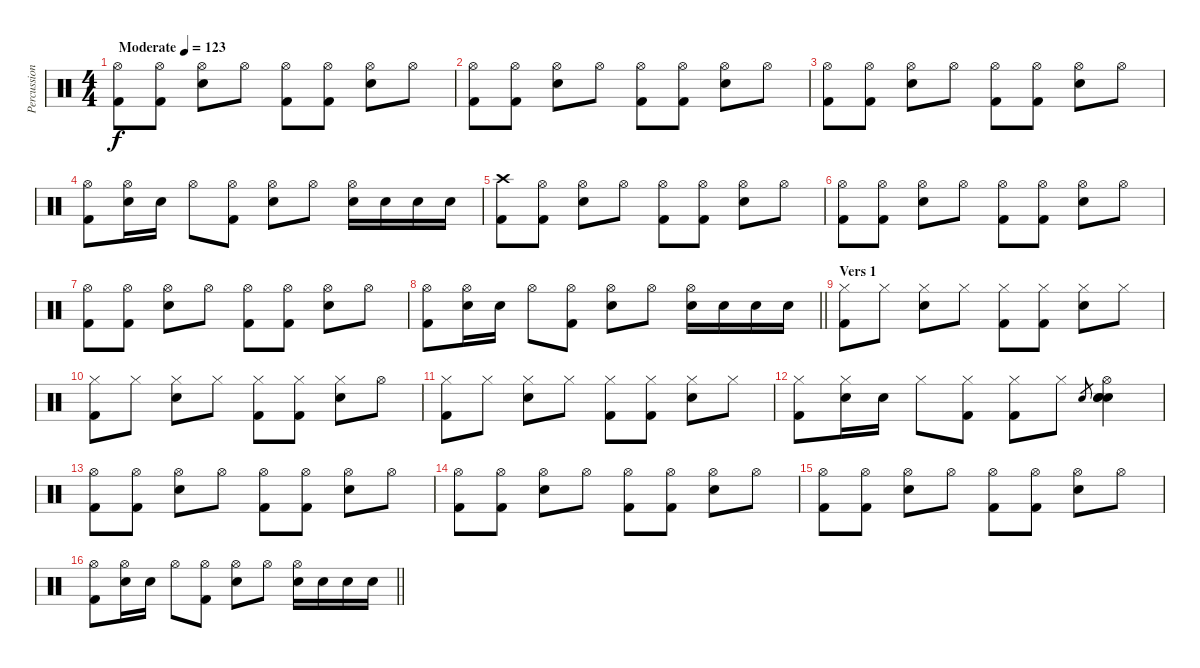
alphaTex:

\track ("Percussion" "Percussion") {instrument percussion}
\staff {score}
\articulation defaults
\ts (4 4)
\tempo (123 "Moderate")
\clef neutral
\ks c
("Hi-Hat (open)" "Kick (hit) 2").8{dy f} ("Hi-Hat (open)" "Kick (hit) 2").8 ("Hi-Hat (open)" "Snare (hit) 2").8 "Hi-Hat (open)".8 ("Hi-Hat (open)" "Kick (hit) 2").8 ("Hi-Hat (open)" "Kick (hit) 2").8 ("Hi-Hat (open)" "Snare (hit) 2").8 "Hi-Hat (open)".8 |
("Hi-Hat (open)" "Kick (hit) 2").8 ("Hi-Hat (open)" "Kick (hit) 2").8 ("Hi-Hat (open)" "Snare (hit) 2").8 "Hi-Hat (open)".8 ("Hi-Hat (open)" "Kick (hit) 2").8 ("Hi-Hat (open)" "Kick (hit) 2").8 ("Hi-Hat (open)" "Snare (hit) 2").8 "Hi-Hat (open)".8 |
("Hi-Hat (open)" "Kick (hit) 2").8 ("Hi-Hat (open)" "Kick (hit) 2").8 ("Hi-Hat (open)" "Snare (hit) 2").8 "Hi-Hat (open)".8 ("Hi-Hat (open)" "Kick (hit) 2").8 ("Hi-Hat (open)" "Kick (hit) 2").8 ("Hi-Hat (open)" "Snare (hit) 2").8 "Hi-Hat (open)".8 |
("Hi-Hat (open)" "Kick (hit) 2").8 ("Hi-Hat (open)" "Snare (hit) 2").16 "Snare (hit) 2".16 "Hi-Hat (open)".8 ("Hi-Hat (open)" "Kick (hit) 2").8 ("Hi-Hat (open)" "Snare (hit) 2").8 "Hi-Hat (open)".8 ("Hi-Hat (open)" "Snare (hit) 2").16 "Snare (hit) 2".16 "Snare (hit) 2".16 "Snare (hit) 2".16 |
("Crash high (hit)" "Kick (hit) 2").8 ("Hi-Hat (open)" "Kick (hit) 2").8 ("Hi-Hat (open)" "Snare (hit) 2").8 "Hi-Hat (open)".8 ("Hi-Hat (open)" "Kick (hit) 2").8 ("Hi-Hat (open)" "Kick (hit) 2").8 ("Hi-Hat (open)" "Snare (hit) 2").8 "Hi-Hat (open)".8 |
("Hi-Hat (open)" "Kick (hit) 2").8 ("Hi-Hat (open)" "Kick (hit) 2").8 ("Hi-Hat (open)" "Snare (hit) 2").8 "Hi-Hat (open)".8 ("Hi-Hat (open)" "Kick (hit) 2").8 ("Hi-Hat (open)" "Kick (hit) 2").8 ("Hi-Hat (open)" "Snare (hit) 2").8 "Hi-Hat (open)".8 |
("Hi-Hat (open)" "Kick (hit) 2").8 ("Hi-Hat (open)" "Kick (hit) 2").8 ("Hi-Hat (open)" "Snare (hit) 2").8 "Hi-Hat (open)".8 ("Hi-Hat (open)" "Kick (hit) 2").8 ("Hi-Hat (open)" "Kick (hit) 2").8 ("Hi-Hat (open)" "Snare (hit) 2").8 "Hi-Hat (open)".8 |
\barLineRight lightlight
("Hi-Hat (open)" "Kick (hit) 2").8 ("Hi-Hat (open)" "Snare (hit) 2").16 "Snare (hit) 2".16 "Hi-Hat (open)".8 ("Hi-Hat (open)" "Kick (hit) 2").8 ("Hi-Hat (open)" "Snare (hit) 2").8 "Hi-Hat (open)".8 ("Hi-Hat (open)" "Snare (hit) 2").16 "Snare (hit) 2".16 "Snare (hit) 2".16 "Snare (hit) 2".16 |
\section ("" "Vers 1")
("Hi-Hat (closed)" "Kick (hit) 2").8 "Hi-Hat (closed)".8 ("Hi-Hat (closed)" "Snare (hit) 2").8 "Hi-Hat (closed)".8 ("Hi-Hat (closed)" "Kick (hit) 2").8 ("Hi-Hat (closed)" "Kick (hit) 2").8 ("Hi-Hat (closed)" "Snare (hit) 2").8 "Hi-Hat (closed)".8 |
("Hi-Hat (closed)" "Kick (hit) 2").8 "Hi-Hat (closed)".8 ("Hi-Hat (closed)" "Snare (hit) 2").8 "Hi-Hat (closed)".8 ("Hi-Hat (closed)" "Kick (hit) 2").8 ("Hi-Hat (closed)" "Kick (hit) 2").8 ("Hi-Hat (closed)" "Snare (hit) 2").8 "Hi-Hat (open)".8 |
("Hi-Hat (closed)" "Kick (hit) 2").8 "Hi-Hat (closed)".8 ("Hi-Hat (closed)" "Snare (hit) 2").8 "Hi-Hat (closed)".8 ("Hi-Hat (closed)" "Kick (hit) 2").8 ("Hi-Hat (closed)" "Kick (hit) 2").8 ("Hi-Hat (closed)" "Snare (hit) 2").8 "Hi-Hat (closed)".8 |
("Hi-Hat (closed)" "Kick (hit) 2").8 ("Hi-Hat (closed)" "Snare (hit) 2").16 "Snare (hit) 2".16 "Hi-Hat (closed)".8 ("Hi-Hat (closed)" "Kick (hit) 2").8 ("Hi-Hat (closed)" "Kick (hit) 2").8 "Hi-Hat (closed)".8 "Snare (hit) 2".8{gr} ("Hi-Hat (open)" "Snare (hit) 2" "Snare (hit) 2" "Snare (hit) 2").4 |
("Hi-Hat (open)" "Kick (hit) 2").8 ("Hi-Hat (open)" "Kick (hit) 2").8 ("Hi-Hat (open)" "Snare (hit) 2").8 "Hi-Hat (open)".8 ("Hi-Hat (open)" "Kick (hit) 2").8 ("Hi-Hat (open)" "Kick (hit) 2").8 ("Hi-Hat (open)" "Snare (hit) 2").8 "Hi-Hat (open)".8 |
("Hi-Hat (open)" "Kick (hit) 2").8 ("Hi-Hat (open)" "Kick (hit) 2").8 ("Hi-Hat (open)" "Snare (hit) 2").8 "Hi-Hat (open)".8 ("Hi-Hat (open)" "Kick (hit) 2").8 ("Hi-Hat (open)" "Kick (hit) 2").8 ("Hi-Hat (open)" "Snare (hit) 2").8 "Hi-Hat (open)".8 |
("Hi-Hat (open)" "Kick (hit) 2").8 ("Hi-Hat (open)" "Kick (hit) 2").8 ("Hi-Hat (open)" "Snare (hit) 2").8 "Hi-Hat (open)".8 ("Hi-Hat (open)" "Kick (hit) 2").8 ("Hi-Hat (open)" "Kick (hit) 2").8 ("Hi-Hat (open)" "Snare (hit) 2").8 "Hi-Hat (open)".8 |
\barLineRight lightlight
("Hi-Hat (open)" "Kick (hit) 2").8 ("Hi-Hat (open)" "Snare (hit) 2").16 "Snare (hit) 2".16 "Hi-Hat (open)".8 ("Hi-Hat (open)" "Kick (hit) 2").8 ("Hi-Hat (open)" "Snare (hit) 2").8 "Hi-Hat (open)".8 ("Hi-Hat (open)" "Snare (hit) 2").16 "Snare (hit) 2".16 "Snare (hit) 2".16 "Snare (hit) 2".16
